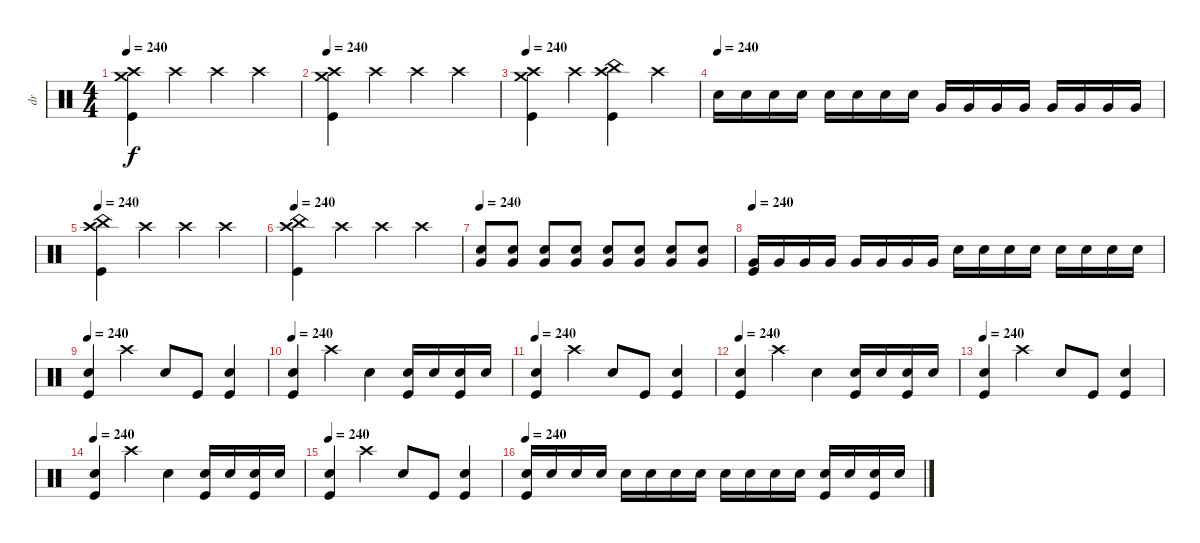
\track ("dr" "dr") {instrument percussion}
\staff {score}
\articulation defaults
\ts (4 4)
\tempo 240
\clef neutral
\ks c
("Crash high (hit)" "Crash medium (hit)" "Kick (hit)").4{dy f} "Crash high (hit)".4 "Crash high (hit)".4 "Crash high (hit)".4 |
\tempo 240
("Crash high (hit)" "Crash medium (hit)" "Kick (hit)").4 "Crash high (hit)".4 "Crash high (hit)".4 "Crash high (hit)".4 |
\tempo 240
("Crash high (hit)" "Crash medium (hit)" "Kick (hit)").4 "Crash high (hit)".4 ("Crash high (hit)" "China (hit)" "Kick (hit)").4 "Crash high (hit)".4 |
\tempo (240)
"Electric Snare (hit)".16 "Electric Snare (hit)".16 "Electric Snare (hit)".16 "Electric Snare (hit)".16 "Electric Snare (hit)".16 "Electric Snare (hit)".16 "Electric Snare (hit)".16 "Electric Snare (hit)".16 "Very Low Tom (hit)".16 "Very Low Tom (hit)".16 "Very Low Tom (hit)".16 "Very Low Tom (hit)".16 "Very Low Tom (hit)".16 "Very Low Tom (hit)".16 "Very Low Tom (hit)".16 "Very Low Tom (hit)".16 |
\tempo 240
("Crash high (hit)" "China (hit)" "Kick (hit)").4 "Crash high (hit)".4 "Crash high (hit)".4 "Crash high (hit)".4 |
\tempo 240
("Crash high (hit)" "China (hit)" "Kick (hit)").4 "Crash high (hit)".4 "Crash high (hit)".4 "Crash high (hit)".4 |
\tempo 240
("Electric Snare (hit)" "Very Low Tom (hit)").8 ("Electric Snare (hit)" "Very Low Tom (hit)").8 ("Electric Snare (hit)" "Very Low Tom (hit)").8 ("Electric Snare (hit)" "Very Low Tom (hit)").8 ("Electric Snare (hit)" "Very Low Tom (hit)").8 ("Electric Snare (hit)" "Very Low Tom (hit)").8 ("Electric Snare (hit)" "Very Low Tom (hit)").8 ("Electric Snare (hit)" "Very Low Tom (hit)").8 |
\tempo 240
("Very Low Tom (hit)" "Kick (hit)").16 "Very Low Tom (hit)".16 "Very Low Tom (hit)".16 "Very Low Tom (hit)".16 "Very Low Tom (hit)".16 "Very Low Tom (hit)".16 "Very Low Tom (hit)".16 "Very Low Tom (hit)".16 "Electric Snare (hit)".16 "Electric Snare (hit)".16 "Electric Snare (hit)".16 "Electric Snare (hit)".16 "Electric Snare (hit)".16 "Electric Snare (hit)".16 "Electric Snare (hit)".16 "Electric Snare (hit)".16 |
\tempo 240
("Snare (hit) 2" "Kick (hit)").4 "Crash high (hit)".4 "Snare (hit) 2".8 "Kick (hit)".8 ("Snare (hit) 2" "Kick (hit)").4 |
\tempo 240
("Snare (hit) 2" "Kick (hit)").4 "Crash high (hit)".4 "Snare (hit) 2".4 ("Snare (hit) 2" "Kick (hit)").16 "Snare (hit) 2".16 ("Snare (hit) 2" "Kick (hit)").16 "Snare (hit) 2".16 |
\tempo 240
("Snare (hit) 2" "Kick (hit)").4 "Crash high (hit)".4 "Snare (hit) 2".8 "Kick (hit)".8 ("Snare (hit) 2" "Kick (hit)").4 |
\tempo 240
("Snare (hit) 2" "Kick (hit)").4 "Crash high (hit)".4 "Snare (hit) 2".4 ("Snare (hit) 2" "Kick (hit)").16 "Snare (hit) 2".16 ("Snare (hit) 2" "Kick (hit)").16 "Snare (hit) 2".16 |
\tempo 240
("Snare (hit) 2" "Kick (hit)").4 "Crash high (hit)".4 "Snare (hit) 2".8 "Kick (hit)".8 ("Snare (hit) 2" "Kick (hit)").4 |
\tempo 240
("Snare (hit) 2" "Kick (hit)").4 "Crash high (hit)".4 "Snare (hit) 2".4 ("Snare (hit) 2" "Kick (hit)").16 "Snare (hit) 2".16 ("Snare (hit) 2" "Kick (hit)").16 "Snare (hit) 2".16 |
\tempo 240
("Snare (hit) 2" "Kick (hit)").4 "Crash high (hit)".4 "Snare (hit) 2".8 "Kick (hit)".8 ("Snare (hit) 2" "Kick (hit)").4 |
\tempo 240
("Electric Snare (hit)" "Kick (hit)").16 "Electric Snare (hit)".16 "Electric Snare (hit)".16 "Electric Snare (hit)".16 "Electric Snare (hit)".16 "Electric Snare (hit)".16 "Electric Snare (hit)".16 "Electric Snare (hit)".16 "Snare (hit) 2".16 "Snare (hit) 2".16 "Snare (hit) 2".16 "Snare (hit) 2".16 ("Snare (hit) 2" "Kick (hit)").16 "Snare (hit) 2".16 ("Snare (hit) 2" "Kick (hit)").16 "Snare (hit) 2".16
